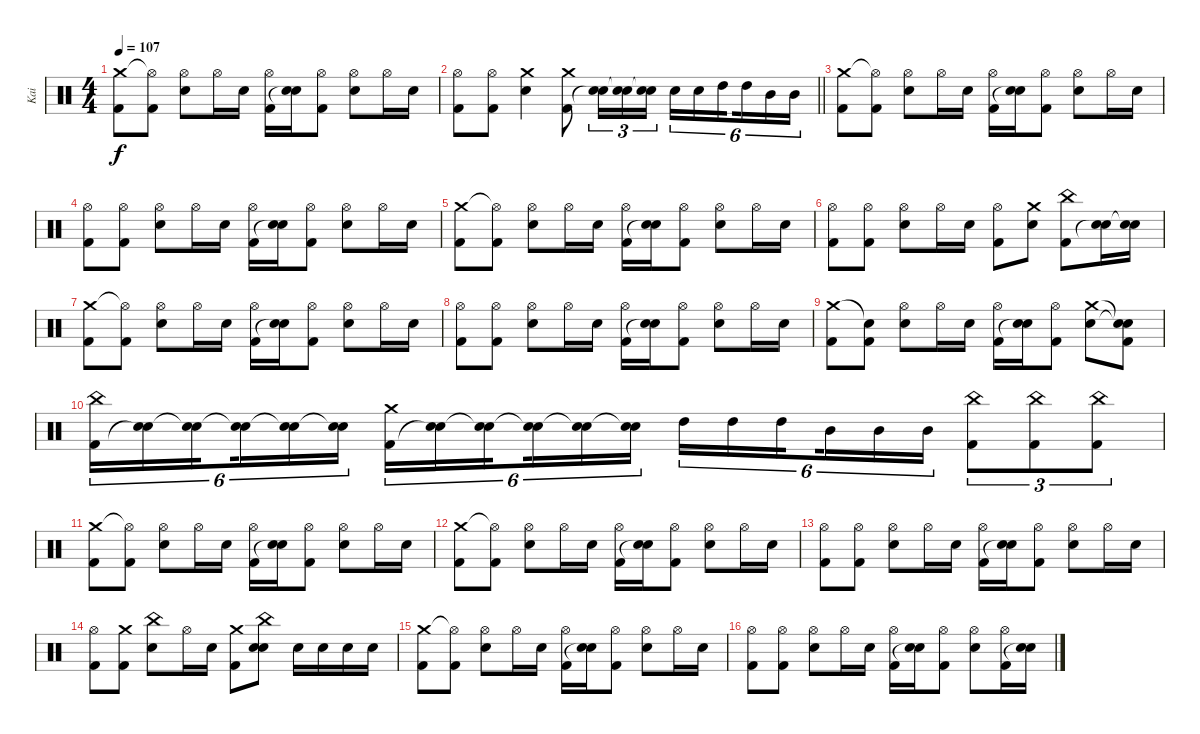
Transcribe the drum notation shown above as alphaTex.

\track ("Kai" "Kai") {instrument percussion}
\staff {score}
\articulation defaults
\ts (4 4)
\tempo 107
\clef neutral
\ks c
("Crash medium (hit)" "Kick (hit) 2").8{dy f} ("Hi-Hat (open)"{t} "Kick (hit) 2").8 ("Hi-Hat (open)" "Snare (hit) 2").8 "Hi-Hat (open)".16 "Snare (hit) 2".16 ("Hi-Hat (open)" "Kick (hit) 2").16 ("Snare (hit) 2" "Snare (hit)"{t}).16 ("Hi-Hat (open)" "Kick (hit) 2").8 ("Hi-Hat (open)" "Snare (hit) 2").8 "Hi-Hat (open)".16 "Snare (hit) 2".16 |
\barLineRight lightlight
("Hi-Hat (open)" "Kick (hit) 2").8 ("Hi-Hat (open)" "Kick (hit) 2").8 ("Crash medium (hit)" "Snare (hit) 2").4 ("Crash medium (hit)" "Kick (hit) 2").8 ("Snare (hit) 2" "Snare (hit)"{t}).16{tu (3 2)} ("Snare (hit) 2" "Snare (hit)"{t}).16{tu (3 2)} ("Snare (hit) 2" "Snare (hit)"{t}).16{tu (3 2)} "Snare (hit) 2".16{tu (6 4)} "Snare (hit) 2".16{tu (6 4)} "High Tom (hit)".16{tu (6 4) beam splitsecondary} "High Tom (hit)".16{tu (6 4)} "Mid Tom (hit)".16{tu (6 4)} "Mid Tom (hit)".16{tu (6 4)} |
("Crash medium (hit)" "Kick (hit) 2").8 ("Hi-Hat (open)"{t} "Kick (hit) 2").8 ("Hi-Hat (open)" "Snare (hit) 2").8 "Hi-Hat (open)".16 "Snare (hit) 2".16 ("Hi-Hat (open)" "Kick (hit) 2").16 ("Snare (hit) 2" "Snare (hit)"{t}).16 ("Hi-Hat (open)" "Kick (hit) 2").8 ("Hi-Hat (open)" "Snare (hit) 2").8 "Hi-Hat (open)".16 "Snare (hit) 2".16 |
("Hi-Hat (open)" "Kick (hit) 2").8 ("Hi-Hat (open)" "Kick (hit) 2").8 ("Hi-Hat (open)" "Snare (hit) 2").8 "Hi-Hat (open)".16 "Snare (hit) 2".16 ("Hi-Hat (open)" "Kick (hit) 2").16 ("Snare (hit) 2" "Snare (hit)"{t}).16 ("Hi-Hat (open)" "Kick (hit) 2").8 ("Hi-Hat (open)" "Snare (hit) 2").8 "Hi-Hat (open)".16 "Snare (hit) 2".16 |
("Crash medium (hit)" "Kick (hit) 2").8 ("Hi-Hat (open)"{t} "Kick (hit) 2").8 ("Hi-Hat (open)" "Snare (hit) 2").8 "Hi-Hat (open)".16 "Snare (hit) 2".16 ("Hi-Hat (open)" "Kick (hit) 2").16 ("Snare (hit) 2" "Snare (hit)"{t}).16 ("Hi-Hat (open)" "Kick (hit) 2").8 ("Hi-Hat (open)" "Snare (hit) 2").8 "Hi-Hat (open)".16 "Snare (hit) 2".16 |
("Hi-Hat (open)" "Kick (hit) 2").8 ("Hi-Hat (open)" "Kick (hit) 2").8 ("Hi-Hat (open)" "Snare (hit) 2").8 "Hi-Hat (open)".16 "Snare (hit) 2".16 ("Hi-Hat (open)" "Kick (hit) 2").8 ("Crash medium (hit)" "Snare (hit) 2").8 ("China (hit)" "Kick (hit) 2").8 ("Snare (hit) 2" "Snare (hit)"{t}).16 ("Snare (hit) 2" "Snare (hit)"{t}).16 |
("Crash medium (hit)" "Kick (hit) 2").8 ("Hi-Hat (open)"{t} "Kick (hit) 2").8 ("Hi-Hat (open)" "Snare (hit) 2").8 "Hi-Hat (open)".16 "Snare (hit) 2".16 ("Hi-Hat (open)" "Kick (hit) 2").16 ("Snare (hit) 2" "Snare (hit)"{t}).16 ("Hi-Hat (open)" "Kick (hit) 2").8 ("Hi-Hat (open)" "Snare (hit) 2").8 "Hi-Hat (open)".16 "Snare (hit) 2".16 |
("Hi-Hat (open)" "Kick (hit) 2").8 ("Hi-Hat (open)" "Kick (hit) 2").8 ("Hi-Hat (open)" "Snare (hit) 2").8 "Hi-Hat (open)".16 "Snare (hit) 2".16 ("Hi-Hat (open)" "Kick (hit) 2").16 ("Snare (hit) 2" "Snare (hit)"{t}).16 ("Hi-Hat (open)" "Kick (hit) 2").8 ("Hi-Hat (open)" "Snare (hit) 2").8 "Hi-Hat (open)".16 "Snare (hit) 2".16 |
("Crash medium (hit)" "Kick (hit) 2").8 ("Snare (hit)"{t} "Kick (hit) 2").8 ("Hi-Hat (open)" "Snare (hit) 2").8 "Hi-Hat (open)".16 "Snare (hit) 2".16 ("Hi-Hat (open)" "Kick (hit) 2").16 ("Snare (hit) 2" "Snare (hit)"{t}).16 ("Hi-Hat (open)" "Kick (hit) 2").8 ("Crash medium (hit)" "Snare (hit) 2").8 ("Snare (hit)"{t} "Snare (hit)"{t} "Kick (hit) 2").8 |
("China (hit)" "Kick (hit) 2").16{tu (6 4)} ("Snare (hit) 2" "Snare (hit)"{t}).16{tu (6 4)} ("Snare (hit) 2" "Snare (hit)"{t}).16{tu (6 4) beam splitsecondary} ("Snare (hit) 2" "Snare (hit)"{t}).16{tu (6 4)} ("Snare (hit) 2" "Snare (hit)"{t}).16{tu (6 4)} ("Snare (hit) 2" "Snare (hit)"{t}).16{tu (6 4)} ("Crash medium (hit)" "Kick (hit) 2").16{tu (6 4)} ("Snare (hit) 2" "Snare (hit)"{t}).16{tu (6 4)} ("Snare (hit) 2" "Snare (hit)"{t}).16{tu (6 4) beam splitsecondary} ("Snare (hit) 2" "Snare (hit)"{t}).16{tu (6 4)} ("Snare (hit) 2" "Snare (hit)"{t}).16{tu (6 4)} ("Snare (hit) 2" "Snare (hit)"{t}).16{tu (6 4)} "High Tom (hit)".16{tu (6 4)} "High Tom (hit)".16{tu (6 4)} "High Tom (hit)".16{tu (6 4) beam splitsecondary} "Mid Tom (hit)".16{tu (6 4)} "Mid Tom (hit)".16{tu (6 4)} "Mid Tom (hit)".16{tu (6 4)} ("China (hit)" "Kick (hit) 2").8{tu (3 2)} ("China (hit)" "Kick (hit) 2").8{tu (3 2)} ("China (hit)" "Kick (hit) 2").8{tu (3 2)} |
("Crash medium (hit)" "Kick (hit) 2").8 ("Hi-Hat (open)"{t} "Kick (hit) 2").8 ("Hi-Hat (open)" "Snare (hit) 2").8 "Hi-Hat (open)".16 "Snare (hit) 2".16 ("Hi-Hat (open)" "Kick (hit) 2").16 ("Snare (hit) 2" "Snare (hit)"{t}).16 ("Hi-Hat (open)" "Kick (hit) 2").8 ("Hi-Hat (open)" "Snare (hit) 2").8 "Hi-Hat (open)".16 "Snare (hit) 2".16 |
("Crash medium (hit)" "Kick (hit) 2").8 ("Hi-Hat (open)"{t} "Kick (hit) 2").8 ("Hi-Hat (open)" "Snare (hit) 2").8 "Hi-Hat (open)".16 "Snare (hit) 2".16 ("Hi-Hat (open)" "Kick (hit) 2").16 ("Snare (hit) 2" "Snare (hit)"{t}).16 ("Hi-Hat (open)" "Kick (hit) 2").8 ("Hi-Hat (open)" "Snare (hit) 2").8 "Hi-Hat (open)".16 "Snare (hit) 2".16 |
("Hi-Hat (open)" "Kick (hit) 2").8 ("Hi-Hat (open)" "Kick (hit) 2").8 ("Hi-Hat (open)" "Snare (hit) 2").8 "Hi-Hat (open)".16 "Snare (hit) 2".16 ("Hi-Hat (open)" "Kick (hit) 2").16 ("Snare (hit) 2" "Snare (hit)"{t}).16 ("Hi-Hat (open)" "Kick (hit) 2").8 ("Hi-Hat (open)" "Snare (hit) 2").8 "Hi-Hat (open)".16 "Snare (hit) 2".16 |
("Hi-Hat (open)" "Kick (hit) 2").8 ("Crash medium (hit)" "Kick (hit) 2").8 ("China (hit)" "Snare (hit) 2").8 "Hi-Hat (open)".16 "Snare (hit) 2".16 ("Crash medium (hit)" "Kick (hit) 2").8 ("China (hit)" "Snare (hit) 2" "Snare (hit)").8 "Snare (hit) 2".16 "Snare (hit) 2".16 "Snare (hit) 2".16 "Snare (hit) 2".16 |
("Crash medium (hit)" "Kick (hit) 2").8 ("Hi-Hat (open)"{t} "Kick (hit) 2").8 ("Hi-Hat (open)" "Snare (hit) 2").8 "Hi-Hat (open)".16 "Snare (hit) 2".16 ("Hi-Hat (open)" "Kick (hit) 2").16 ("Snare (hit) 2" "Snare (hit)"{t}).16 ("Hi-Hat (open)" "Kick (hit) 2").8 ("Hi-Hat (open)" "Snare (hit) 2").8 "Hi-Hat (open)".16 "Snare (hit) 2".16 |
("Hi-Hat (open)" "Kick (hit) 2").8 ("Hi-Hat (open)" "Kick (hit) 2").8 ("Hi-Hat (open)" "Snare (hit) 2").8 "Hi-Hat (open)".16 "Snare (hit) 2".16 ("Hi-Hat (open)" "Kick (hit) 2").16 ("Snare (hit) 2" "Snare (hit)"{t}).16 ("Hi-Hat (open)" "Kick (hit) 2").8 ("Hi-Hat (open)" "Snare (hit) 2").8 ("Hi-Hat (open)" "Kick (hit) 2").16 ("Snare (hit) 2" "Snare (hit)"{t}).16
